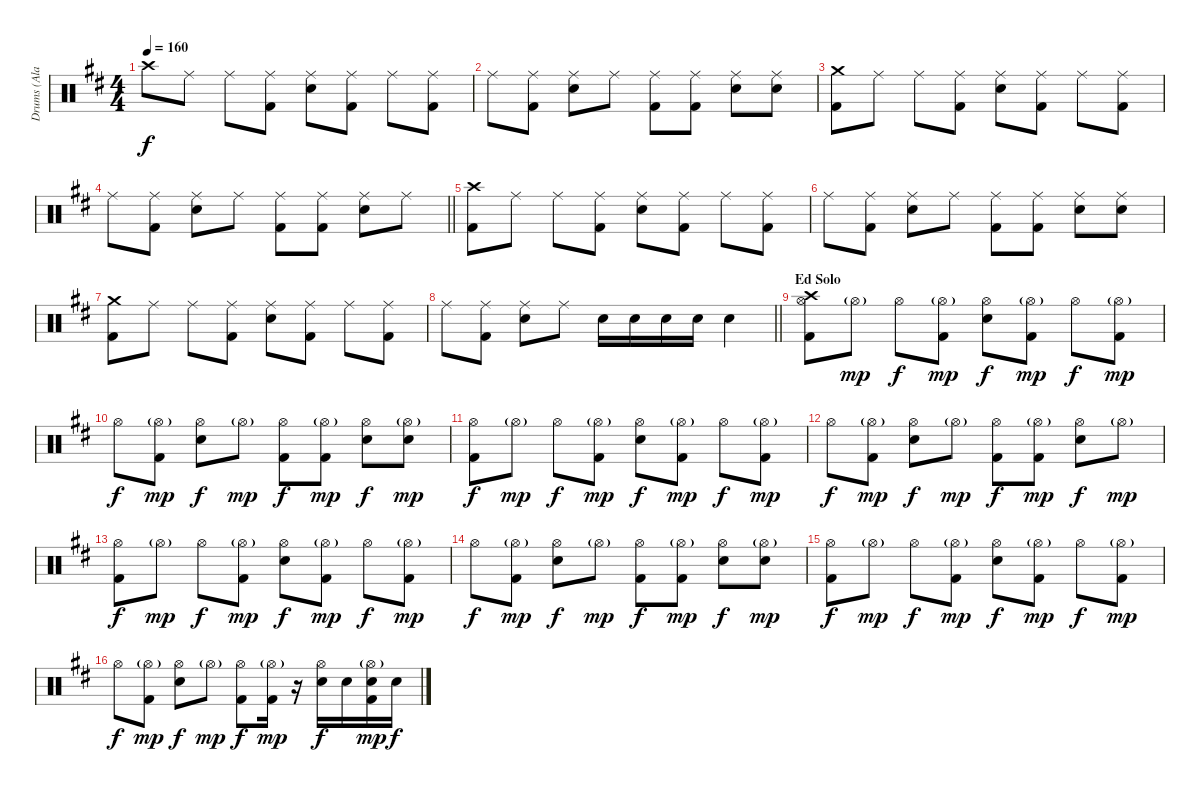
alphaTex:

\track ("Drums (Ala Burns)" "Drums (Ala") {instrument percussion}
\staff {score}
\articulation defaults
\ts (4 4)
\tempo 160
\clef neutral
\ks d "Crash high (hit)".8{dy f} "Ride (middle)".8 "Ride (middle)".8
("Ride (middle)" "Kick (hit) 2").8 ("Ride (middle)" "Snare (hit) 2").8 ("Ride (middle)" "Kick (hit) 2").8 "Ride (middle)".8 ("Ride (middle)" "Kick (hit) 2").8 |
"Ride (middle)".8 ("Ride (middle)" "Kick (hit) 2").8 ("Ride (middle)" "Snare (hit) 2").8 "Ride (middle)".8 ("Ride (middle)" "Kick (hit) 2").8 ("Ride (middle)" "Kick (hit) 2").8 ("Ride (middle)" "Snare (hit) 2").8 ("Ride (middle)" "Snare (hit) 2").8 |
("Crash medium (hit)" "Kick (hit) 2").8 "Ride (middle)".8 "Ride (middle)".8 ("Ride (middle)" "Kick (hit) 2").8 ("Ride (middle)" "Snare (hit) 2").8 ("Ride (middle)" "Kick (hit) 2").8 "Ride (middle)".8 ("Ride (middle)" "Kick (hit) 2").8 |
\barLineRight lightlight "Ride (middle)".8
("Ride (middle)" "Kick (hit) 2").8 ("Ride (middle)" "Snare (hit) 2").8 "Ride (middle)".8 ("Ride (middle)" "Kick (hit) 2").8 ("Ride (middle)" "Kick (hit) 2").8 ("Ride (middle)" "Snare (hit) 2").8 "Ride (middle)".8 |
("Crash high (hit)" "Kick (hit) 2").8 "Ride (middle)".8 "Ride (middle)".8 ("Ride (middle)" "Kick (hit) 2").8 ("Ride (middle)" "Snare (hit) 2").8 ("Ride (middle)" "Kick (hit) 2").8 "Ride (middle)".8 ("Ride (middle)" "Kick (hit) 2").8 |
"Ride (middle)".8 ("Ride (middle)" "Kick (hit) 2").8 ("Ride (middle)" "Snare (hit) 2").8 "Ride (middle)".8 ("Ride (middle)" "Kick (hit) 2").8 ("Ride (middle)" "Kick (hit) 2").8 ("Ride (middle)" "Snare (hit) 2").8 ("Ride (middle)" "Snare (hit) 2").8 |
("Crash medium (hit)" "Kick (hit) 2").8 "Ride (middle)".8 "Ride (middle)".8 ("Ride (middle)" "Kick (hit) 2").8 ("Ride (middle)" "Snare (hit) 2").8 ("Ride (middle)" "Kick (hit) 2").8 "Ride (middle)".8 ("Ride (middle)" "Kick (hit) 2").8 |
\barLineRight lightlight "Ride (middle)".8
("Ride (middle)" "Kick (hit) 2").8 ("Ride (middle)" "Snare (hit) 2").8 "Ride (middle)".8 "Snare (hit) 2".16 "Snare (hit) 2".16 "Snare (hit) 2".16 "Snare (hit) 2".16 "Snare (hit) 2".4 |
\section ("" "Ed Solo")
("Crash high (hit)" "Hi-Hat (open)" "Kick (hit) 2").8 "Hi-Hat (open)"{g}.8{dy mp} "Hi-Hat (open)".8{dy f} ("Hi-Hat (open)"{g} "Kick (hit) 2").8{dy mp} ("Snare (hit) 2" "Hi-Hat (open)").8{dy f} ("Hi-Hat (open)"{g} "Kick (hit) 2").8{dy mp} "Hi-Hat (open)".8{dy f} ("Hi-Hat (open)"{g} "Kick (hit) 2").8{dy mp} |
"Hi-Hat (open)".8{dy f} ("Hi-Hat (open)"{g} "Kick (hit) 2").8{dy mp} ("Snare (hit) 2" "Hi-Hat (open)").8{dy f} "Hi-Hat (open)"{g}.8{dy mp} ("Hi-Hat (open)" "Kick (hit) 2").8{dy f} ("Hi-Hat (open)"{g} "Kick (hit) 2").8{dy mp} ("Snare (hit) 2" "Hi-Hat (open)").8{dy f} ("Snare (hit) 2" "Hi-Hat (open)"{g}).8{dy mp} |
("Hi-Hat (open)" "Kick (hit) 2").8{dy f} "Hi-Hat (open)"{g}.8{dy mp} "Hi-Hat (open)".8{dy f} ("Hi-Hat (open)"{g} "Kick (hit) 2").8{dy mp} ("Snare (hit) 2" "Hi-Hat (open)").8{dy f} ("Hi-Hat (open)"{g} "Kick (hit) 2").8{dy mp} "Hi-Hat (open)".8{dy f} ("Hi-Hat (open)"{g} "Kick (hit) 2").8{dy mp} |
"Hi-Hat (open)".8{dy f} ("Hi-Hat (open)"{g} "Kick (hit) 2").8{dy mp} ("Snare (hit) 2" "Hi-Hat (open)").8{dy f} "Hi-Hat (open)"{g}.8{dy mp} ("Hi-Hat (open)" "Kick (hit) 2").8{dy f} ("Hi-Hat (open)"{g} "Kick (hit) 2").8{dy mp} ("Snare (hit) 2" "Hi-Hat (open)").8{dy f} "Hi-Hat (open)"{g}.8{dy mp} |
("Hi-Hat (open)" "Kick (hit) 2").8{dy f} "Hi-Hat (open)"{g}.8{dy mp} "Hi-Hat (open)".8{dy f} ("Hi-Hat (open)"{g} "Kick (hit) 2").8{dy mp} ("Snare (hit) 2" "Hi-Hat (open)").8{dy f} ("Hi-Hat (open)"{g} "Kick (hit) 2").8{dy mp} "Hi-Hat (open)".8{dy f} ("Hi-Hat (open)"{g} "Kick (hit) 2").8{dy mp} |
"Hi-Hat (open)".8{dy f} ("Hi-Hat (open)"{g} "Kick (hit) 2").8{dy mp} ("Snare (hit) 2" "Hi-Hat (open)").8{dy f} "Hi-Hat (open)"{g}.8{dy mp} ("Hi-Hat (open)" "Kick (hit) 2").8{dy f} ("Hi-Hat (open)"{g} "Kick (hit) 2").8{dy mp} ("Snare (hit) 2" "Hi-Hat (open)").8{dy f} ("Snare (hit) 2" "Hi-Hat (open)"{g}).8{dy mp} |
("Hi-Hat (open)" "Kick (hit) 2").8{dy f} "Hi-Hat (open)"{g}.8{dy mp} "Hi-Hat (open)".8{dy f} ("Hi-Hat (open)"{g} "Kick (hit) 2").8{dy mp} ("Snare (hit) 2" "Hi-Hat (open)").8{dy f} ("Hi-Hat (open)"{g} "Kick (hit) 2").8{dy mp} "Hi-Hat (open)".8{dy f} ("Hi-Hat (open)"{g} "Kick (hit) 2").8{dy mp} |
"Hi-Hat (open)".8{dy f} ("Hi-Hat (open)"{g} "Kick (hit) 2").8{dy mp} ("Snare (hit) 2" "Hi-Hat (open)").8{dy f} "Hi-Hat (open)"{g}.8{dy mp} ("Hi-Hat (open)" "Kick (hit) 2").8{dy f} ("Hi-Hat (open)"{g} "Kick (hit) 2").16{dy mp} r.16 ("Snare (hit) 2" "Hi-Hat (open)").16{dy f} "Snare (hit) 2".16 ("Snare (hit) 2" "Hi-Hat (open)"{g} "Kick (hit) 2").16{dy mp} "Snare (hit) 2".16{dy f}
